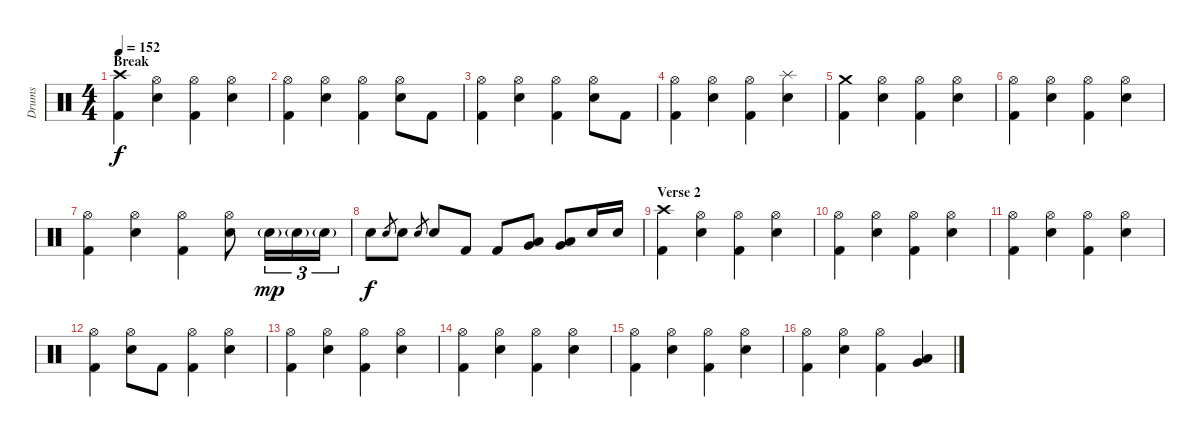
\track ("Drums" "Drums") {instrument percussion}
\staff {score}
\articulation defaults
\ts (4 4)
\section ("" "Break")
\tempo 152
\clef neutral
\ks c
("Crash high (hit)" "Kick (hit) 2").4{dy f} ("Hi-Hat (open)" "Snare (hit) 2").4 ("Hi-Hat (open)" "Kick (hit) 2").4 ("Hi-Hat (open)" "Snare (hit) 2").4 |
("Hi-Hat (open)" "Kick (hit) 2").4 ("Hi-Hat (open)" "Snare (hit) 2").4 ("Hi-Hat (open)" "Kick (hit) 2").4 ("Hi-Hat (open)" "Snare (hit) 2").8 "Kick (hit) 2".8 |
("Hi-Hat (open)" "Kick (hit) 2").4 ("Hi-Hat (open)" "Snare (hit) 2").4 ("Hi-Hat (open)" "Kick (hit) 2").4 ("Hi-Hat (open)" "Snare (hit) 2").8 "Kick (hit) 2".8 |
("Hi-Hat (open)" "Kick (hit) 2").4 ("Hi-Hat (open)" "Snare (hit) 2").4 ("Hi-Hat (open)" "Kick (hit) 2").4 ("Splash (hit)" "Snare (hit) 2").4 |
("Crash medium (hit)" "Kick (hit) 2").4 ("Hi-Hat (open)" "Snare (hit) 2").4 ("Hi-Hat (open)" "Kick (hit) 2").4 ("Hi-Hat (open)" "Snare (hit) 2").4 |
("Hi-Hat (open)" "Kick (hit) 2").4 ("Hi-Hat (open)" "Snare (hit) 2").4 ("Hi-Hat (open)" "Kick (hit) 2").4 ("Hi-Hat (open)" "Snare (hit) 2").4 |
("Hi-Hat (open)" "Kick (hit) 2").4 ("Hi-Hat (open)" "Snare (hit) 2").4 ("Hi-Hat (open)" "Kick (hit) 2").4 ("Hi-Hat (open)" "Snare (hit) 2").8 "Snare (hit) 2"{g}.16{tu (3 2) dy mp} "Snare (hit) 2"{g}.16{tu (3 2)} "Snare (hit) 2"{g}.16{tu (3 2)} |
"Snare (hit) 2".8{dy f} "Snare (hit) 2".8{gr} "Snare (hit) 2".8 "Snare (hit) 2".8{gr} "Snare (hit) 2".8 "Kick (hit) 2".8 "Kick (hit) 2".8 ("Low Tom (hit)" "Very Low Tom (hit)").8 ("Low Tom (hit)" "Very Low Tom (hit)").8 "Snare (hit) 2".16 "Snare (hit) 2".16 |
\section ("" "Verse 2")
("Crash high (hit)" "Kick (hit) 2").4 ("Hi-Hat (open)" "Snare (hit) 2").4 ("Hi-Hat (open)" "Kick (hit) 2").4 ("Hi-Hat (open)" "Snare (hit) 2").4 |
("Hi-Hat (open)" "Kick (hit) 2").4 ("Hi-Hat (open)" "Snare (hit) 2").4 ("Hi-Hat (open)" "Kick (hit) 2").4 ("Hi-Hat (open)" "Snare (hit) 2").4 |
("Hi-Hat (open)" "Kick (hit) 2").4 ("Hi-Hat (open)" "Snare (hit) 2").4 ("Hi-Hat (open)" "Kick (hit) 2").4 ("Hi-Hat (open)" "Snare (hit) 2").4 |
("Hi-Hat (open)" "Kick (hit) 2").4 ("Hi-Hat (open)" "Snare (hit) 2").8 "Kick (hit) 2".8 ("Hi-Hat (open)" "Kick (hit) 2").4 ("Hi-Hat (open)" "Snare (hit) 2").4 |
("Hi-Hat (open)" "Kick (hit) 2").4 ("Hi-Hat (open)" "Snare (hit) 2").4 ("Hi-Hat (open)" "Kick (hit) 2").4 ("Hi-Hat (open)" "Snare (hit) 2").4 |
("Hi-Hat (open)" "Kick (hit) 2").4 ("Hi-Hat (open)" "Snare (hit) 2").4 ("Hi-Hat (open)" "Kick (hit) 2").4 ("Hi-Hat (open)" "Snare (hit) 2").4 |
("Hi-Hat (open)" "Kick (hit) 2").4 ("Hi-Hat (open)" "Snare (hit) 2").4 ("Hi-Hat (open)" "Kick (hit) 2").4 ("Hi-Hat (open)" "Snare (hit) 2").4 |
("Hi-Hat (open)" "Kick (hit) 2").4 ("Hi-Hat (open)" "Snare (hit) 2").4 ("Hi-Hat (open)" "Kick (hit) 2").4 ("Low Tom (hit)" "Very Low Tom (hit)").4
